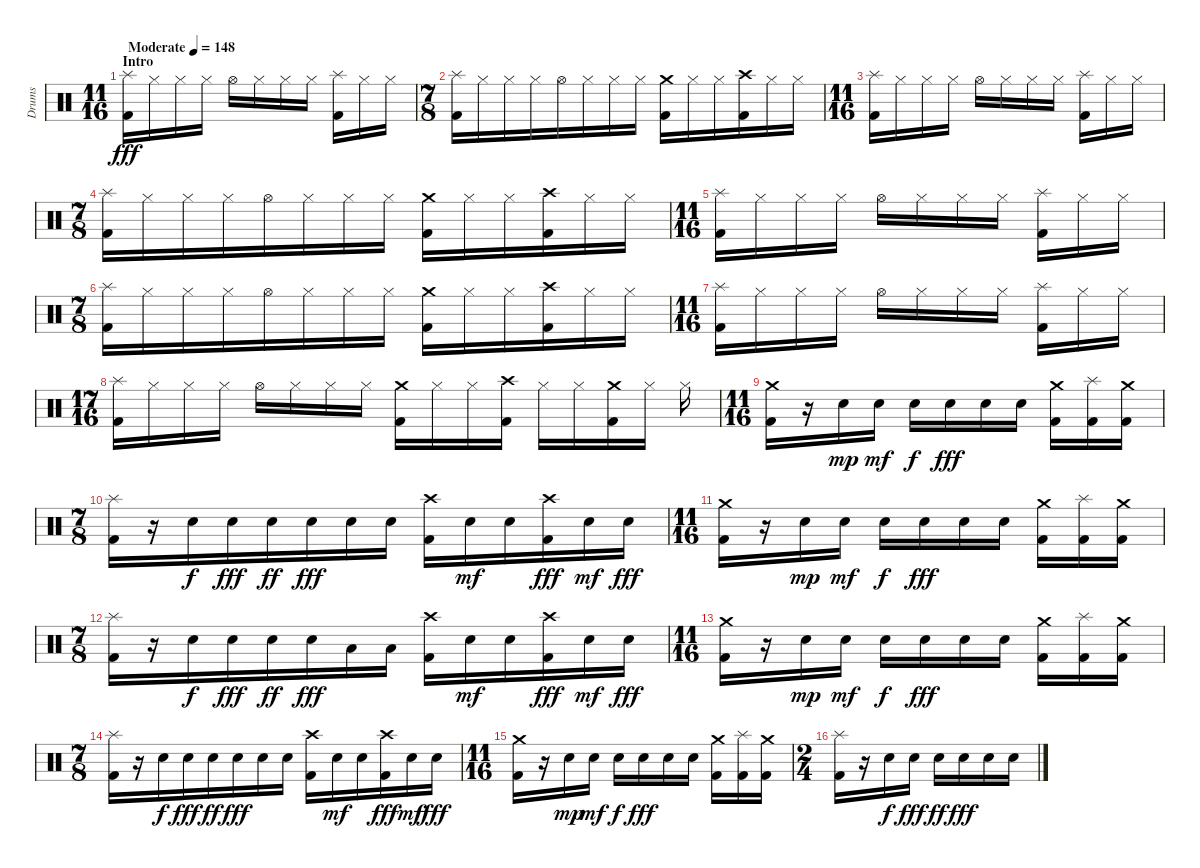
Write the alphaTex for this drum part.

\track ("Drums" "Drums") {instrument percussion}
\staff {score}
\articulation defaults
\ts (11 16)
\section ("" "Intro")
\tempo (148 "Moderate")
\clef neutral
\ks c
("Splash (hit)" "Kick (hit) 2").16{dy fff} "Hi-Hat (closed)".16 "Hi-Hat (closed)".16 "Hi-Hat (closed)".16 "Hi-Hat (open)".16 "Hi-Hat (closed)".16 "Hi-Hat (closed)".16 "Hi-Hat (closed)".16 ("Splash (hit)" "Kick (hit) 2").16 "Hi-Hat (closed)".16 "Hi-Hat (closed)".16 |
\ts (7 8)
("Splash (hit)" "Kick (hit) 2").16 "Hi-Hat (closed)".16 "Hi-Hat (closed)".16 "Hi-Hat (closed)".16 "Hi-Hat (open)".16 "Hi-Hat (closed)".16 "Hi-Hat (closed)".16 "Hi-Hat (closed)".16 ("Crash medium (hit)" "Kick (hit) 2").16 "Hi-Hat (closed)".16 "Hi-Hat (closed)".16 ("Crash high (hit)" "Kick (hit) 2").16 "Hi-Hat (closed)".16 "Hi-Hat (closed)".16 |
\ts (11 16)
("Splash (hit)" "Kick (hit) 2").16 "Hi-Hat (closed)".16 "Hi-Hat (closed)".16 "Hi-Hat (closed)".16 "Hi-Hat (open)".16 "Hi-Hat (closed)".16 "Hi-Hat (closed)".16 "Hi-Hat (closed)".16 ("Splash (hit)" "Kick (hit) 2").16 "Hi-Hat (closed)".16 "Hi-Hat (closed)".16 |
\ts (7 8)
("Splash (hit)" "Kick (hit) 2").16 "Hi-Hat (closed)".16 "Hi-Hat (closed)".16 "Hi-Hat (closed)".16 "Hi-Hat (open)".16 "Hi-Hat (closed)".16 "Hi-Hat (closed)".16 "Hi-Hat (closed)".16 ("Crash medium (hit)" "Kick (hit) 2").16 "Hi-Hat (closed)".16 "Hi-Hat (closed)".16 ("Crash high (hit)" "Kick (hit) 2").16 "Hi-Hat (closed)".16 "Hi-Hat (closed)".16 |
\ts (11 16)
("Splash (hit)" "Kick (hit) 2").16 "Hi-Hat (closed)".16 "Hi-Hat (closed)".16 "Hi-Hat (closed)".16 "Hi-Hat (open)".16 "Hi-Hat (closed)".16 "Hi-Hat (closed)".16 "Hi-Hat (closed)".16 ("Splash (hit)" "Kick (hit) 2").16 "Hi-Hat (closed)".16 "Hi-Hat (closed)".16 |
\ts (7 8)
("Splash (hit)" "Kick (hit) 2").16 "Hi-Hat (closed)".16 "Hi-Hat (closed)".16 "Hi-Hat (closed)".16 "Hi-Hat (open)".16 "Hi-Hat (closed)".16 "Hi-Hat (closed)".16 "Hi-Hat (closed)".16 ("Crash medium (hit)" "Kick (hit) 2").16 "Hi-Hat (closed)".16 "Hi-Hat (closed)".16 ("Crash high (hit)" "Kick (hit) 2").16 "Hi-Hat (closed)".16 "Hi-Hat (closed)".16 |
\ts (11 16)
("Splash (hit)" "Kick (hit) 2").16 "Hi-Hat (closed)".16 "Hi-Hat (closed)".16 "Hi-Hat (closed)".16 "Hi-Hat (open)".16 "Hi-Hat (closed)".16 "Hi-Hat (closed)".16 "Hi-Hat (closed)".16 ("Splash (hit)" "Kick (hit) 2").16 "Hi-Hat (closed)".16 "Hi-Hat (closed)".16 |
\ts (17 16)
("Splash (hit)" "Kick (hit) 2").16 "Hi-Hat (closed)".16 "Hi-Hat (closed)".16 "Hi-Hat (closed)".16 "Hi-Hat (open)".16 "Hi-Hat (closed)".16 "Hi-Hat (closed)".16 "Hi-Hat (closed)".16 ("Crash medium (hit)" "Kick (hit) 2").16 "Hi-Hat (closed)".16 "Hi-Hat (closed)".16 ("Crash high (hit)" "Kick (hit) 2").16 "Hi-Hat (closed)".16 "Hi-Hat (closed)".16 ("Crash medium (hit)" "Kick (hit) 2").16 "Hi-Hat (closed)".16 "Hi-Hat (closed)".16 |
\ts (11 16)
("Crash medium (hit)" "Kick (hit) 2").16 r.16 "Electric Snare (hit)".16{dy mp} "Electric Snare (hit)".16{dy mf} "Electric Snare (hit)".16{dy f} "Electric Snare (hit)".16{dy fff} "Electric Snare (hit)".16 "Electric Snare (hit)".16 ("Crash medium (hit)" "Kick (hit) 2").16 ("Splash (hit)" "Kick (hit) 2").16 ("Crash medium (hit)" "Kick (hit) 2").16 |
\ts (7 8)
("Splash (hit)" "Kick (hit) 2").16 r.16 "Electric Snare (hit)".16{dy f} "Electric Snare (hit)".16{dy fff} "Electric Snare (hit)".16{dy ff} "Electric Snare (hit)".16{dy fff} "Electric Snare (hit)".16 "Electric Snare (hit)".16 ("Crash high (hit)" "Kick (hit) 2").16 "Electric Snare (hit)".16{dy mf} "Electric Snare (hit)".16 ("Crash high (hit)" "Kick (hit) 2").16{dy fff} "Electric Snare (hit)".16{dy mf} "Electric Snare (hit)".16{dy fff} |
\ts (11 16)
("Crash medium (hit)" "Kick (hit) 2").16 r.16 "Electric Snare (hit)".16{dy mp} "Electric Snare (hit)".16{dy mf} "Electric Snare (hit)".16{dy f} "Electric Snare (hit)".16{dy fff} "Electric Snare (hit)".16 "Electric Snare (hit)".16 ("Crash medium (hit)" "Kick (hit) 2").16 ("Splash (hit)" "Kick (hit) 2").16 ("Crash medium (hit)" "Kick (hit) 2").16 |
\ts (7 8)
("Splash (hit)" "Kick (hit) 2").16 r.16 "Electric Snare (hit)".16{dy f} "Electric Snare (hit)".16{dy fff} "Electric Snare (hit)".16{dy ff} "Electric Snare (hit)".16{dy fff} "Low Tom (hit)".16 "Low Tom (hit)".16 ("Crash high (hit)" "Kick (hit) 2").16 "Electric Snare (hit)".16{dy mf} "Electric Snare (hit)".16 ("Crash high (hit)" "Kick (hit) 2").16{dy fff} "Electric Snare (hit)".16{dy mf} "Electric Snare (hit)".16{dy fff} |
\ts (11 16)
("Crash medium (hit)" "Kick (hit) 2").16 r.16 "Electric Snare (hit)".16{dy mp} "Electric Snare (hit)".16{dy mf} "Electric Snare (hit)".16{dy f} "Electric Snare (hit)".16{dy fff} "Electric Snare (hit)".16 "Electric Snare (hit)".16 ("Crash medium (hit)" "Kick (hit) 2").16 ("Splash (hit)" "Kick (hit) 2").16 ("Crash medium (hit)" "Kick (hit) 2").16 |
\ts (7 8)
("Splash (hit)" "Kick (hit) 2").16 r.16 "Electric Snare (hit)".16{dy f} "Electric Snare (hit)".16{dy fff} "Electric Snare (hit)".16{dy ff} "Electric Snare (hit)".16{dy fff} "Electric Snare (hit)".16 "Electric Snare (hit)".16 ("Crash high (hit)" "Kick (hit) 2").16 "Electric Snare (hit)".16{dy mf} "Electric Snare (hit)".16 ("Crash high (hit)" "Kick (hit) 2").16{dy fff} "Electric Snare (hit)".16{dy mf} "Electric Snare (hit)".16{dy fff} |
\ts (11 16)
("Crash medium (hit)" "Kick (hit) 2").16 r.16 "Electric Snare (hit)".16{dy mp} "Electric Snare (hit)".16{dy mf} "Electric Snare (hit)".16{dy f} "Electric Snare (hit)".16{dy fff} "Electric Snare (hit)".16 "Electric Snare (hit)".16 ("Crash medium (hit)" "Kick (hit) 2").16 ("Splash (hit)" "Kick (hit) 2").16 ("Crash medium (hit)" "Kick (hit) 2").16 |
\ts (2 4)
("Splash (hit)" "Kick (hit) 2").16 r.16 "Electric Snare (hit)".16{dy f} "Electric Snare (hit)".16{dy fff} "Electric Snare (hit)".16{dy ff} "Electric Snare (hit)".16{dy fff} "Electric Snare (hit)".16 "Electric Snare (hit)".16
